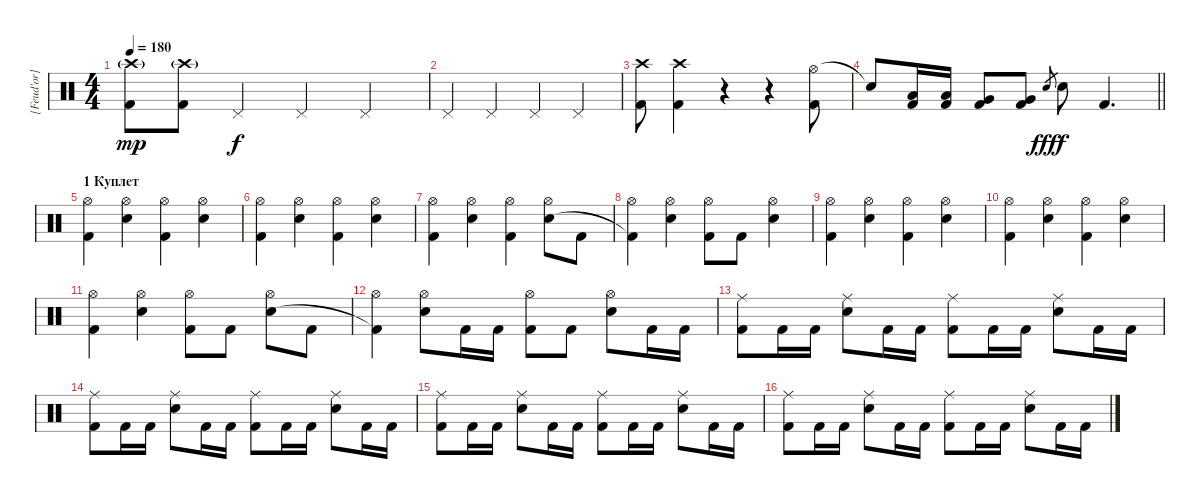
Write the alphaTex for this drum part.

\track ("[Feud'or] - Drums" "[Feud'or] ") {instrument percussion}
\staff {score}
\articulation defaults
\ts (4 4)
\tempo 180
\clef neutral
\ks c
("Crash high (hit)"{g} "Kick (hit) 2").8{dy mp} ("Crash high (hit)"{g} "Kick (hit) 2").8 "Pedal Hi-Hat (hit)".4{dy f} "Pedal Hi-Hat (hit)".4 "Pedal Hi-Hat (hit)".4 |
"Pedal Hi-Hat (hit)".4 "Pedal Hi-Hat (hit)".4 "Pedal Hi-Hat (hit)".4 "Pedal Hi-Hat (hit)".4 |
("Crash high (hit)" "Kick (hit) 2").8 ("Crash high (hit)" "Kick (hit) 2").4 r.4 r.4 ("Hi-Hat (open)" "Kick (hit) 2").8 |
\barLineRight lightlight "Snare (hit) 2"{t}.8
("Low Tom (hit)" "Kick (hit) 2").16 ("Low Tom (hit)" "Kick (hit) 2").16 ("Very Low Tom (hit)" "Kick (hit) 2").8 ("Very Low Tom (hit)" "Kick (hit) 2").8 "Snare (hit) 2".8{gr dy fff} "Snare (hit) 2".8{dy f} "Kick (hit) 2".4{d} |
\section ("" "1 Куплет")
("Hi-Hat (open)" "Kick (hit) 2").4 ("Hi-Hat (open)" "Snare (hit) 2").4 ("Hi-Hat (open)" "Kick (hit) 2").4 ("Hi-Hat (open)" "Snare (hit) 2").4 |
("Hi-Hat (open)" "Kick (hit) 2").4 ("Hi-Hat (open)" "Snare (hit) 2").4 ("Hi-Hat (open)" "Kick (hit) 2").4 ("Hi-Hat (open)" "Snare (hit) 2").4 |
("Hi-Hat (open)" "Kick (hit) 2").4 ("Hi-Hat (open)" "Snare (hit) 2").4 ("Hi-Hat (open)" "Kick (hit) 2").4 ("Hi-Hat (open)" "Snare (hit) 2").8 "Kick (hit) 2".8 |
("Hi-Hat (open)" "Kick (hit) 2"{t}).4 ("Hi-Hat (open)" "Snare (hit) 2").4 ("Hi-Hat (open)" "Kick (hit) 2").8 "Kick (hit) 2".8 ("Hi-Hat (open)" "Snare (hit) 2").4 |
("Hi-Hat (open)" "Kick (hit) 2").4 ("Hi-Hat (open)" "Snare (hit) 2").4 ("Hi-Hat (open)" "Kick (hit) 2").4 ("Hi-Hat (open)" "Snare (hit) 2").4 |
("Hi-Hat (open)" "Kick (hit) 2").4 ("Hi-Hat (open)" "Snare (hit) 2").4 ("Hi-Hat (open)" "Kick (hit) 2").4 ("Hi-Hat (open)" "Snare (hit) 2").4 |
("Hi-Hat (open)" "Kick (hit) 2").4 ("Hi-Hat (open)" "Snare (hit) 2").4 ("Hi-Hat (open)" "Kick (hit) 2").8 "Kick (hit) 2".8 ("Hi-Hat (open)" "Snare (hit) 2").8 "Kick (hit) 2".8 |
("Hi-Hat (open)" "Kick (hit) 2"{t}).4 ("Hi-Hat (open)" "Snare (hit) 2").8 "Kick (hit) 2".16 "Kick (hit) 2".16 ("Hi-Hat (open)" "Kick (hit) 2").8 "Kick (hit) 2".8 ("Hi-Hat (open)" "Snare (hit) 2").8 "Kick (hit) 2".16 "Kick (hit) 2".16 |
("Ride (middle)" "Kick (hit) 2").8 "Kick (hit) 2".16 "Kick (hit) 2".16 ("Ride (middle)" "Snare (hit) 2").8 "Kick (hit) 2".16 "Kick (hit) 2".16 ("Ride (middle)" "Kick (hit) 2").8 "Kick (hit) 2".16 "Kick (hit) 2".16 ("Ride (middle)" "Snare (hit) 2").8 "Kick (hit) 2".16 "Kick (hit) 2".16 |
("Ride (middle)" "Kick (hit) 2").8 "Kick (hit) 2".16 "Kick (hit) 2".16 ("Ride (middle)" "Snare (hit) 2").8 "Kick (hit) 2".16 "Kick (hit) 2".16 ("Ride (middle)" "Kick (hit) 2").8 "Kick (hit) 2".16 "Kick (hit) 2".16 ("Ride (middle)" "Snare (hit) 2").8 "Kick (hit) 2".16 "Kick (hit) 2".16 |
("Ride (middle)" "Kick (hit) 2").8 "Kick (hit) 2".16 "Kick (hit) 2".16 ("Ride (middle)" "Snare (hit) 2").8 "Kick (hit) 2".16 "Kick (hit) 2".16 ("Ride (middle)" "Kick (hit) 2").8 "Kick (hit) 2".16 "Kick (hit) 2".16 ("Ride (middle)" "Snare (hit) 2").8 "Kick (hit) 2".16 "Kick (hit) 2".16 |
("Ride (middle)" "Kick (hit) 2").8 "Kick (hit) 2".16 "Kick (hit) 2".16 ("Ride (middle)" "Snare (hit) 2").8 "Kick (hit) 2".16 "Kick (hit) 2".16 ("Ride (middle)" "Kick (hit) 2").8 "Kick (hit) 2".16 "Kick (hit) 2".16 ("Ride (middle)" "Snare (hit) 2").8 "Kick (hit) 2".16 "Kick (hit) 2".16
